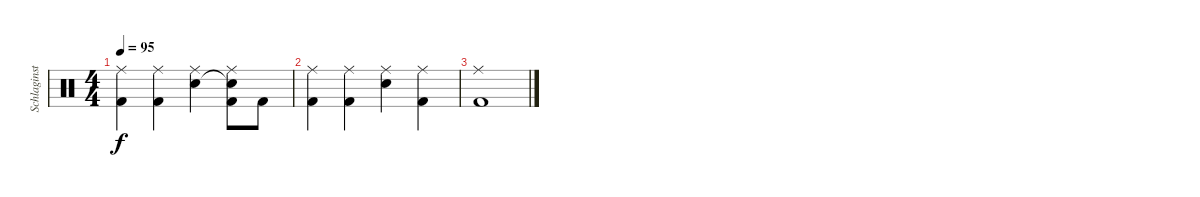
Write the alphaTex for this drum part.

\track ("Schlaginstrumente - Auswahl" "Schlaginst") {instrument percussion}
\staff {score}
\articulation defaults
\ts (4 4)
\tempo 95
\clef neutral
\ks c
("Ride (middle)" "Kick (hit) 2").4{dy f} ("Ride (middle)" "Kick (hit) 2").4 ("Ride (middle)" "Electric Snare (hit)").4 ("Ride (middle)" "Snare (hit)"{t} "Kick (hit) 2").8 "Kick (hit) 2".8 |
("Ride (middle)" "Kick (hit) 2").4 ("Ride (middle)" "Kick (hit) 2").4 ("Ride (middle)" "Electric Snare (hit)").4 ("Ride (middle)" "Kick (hit) 2").4 |
("Ride (middle)" "Kick (hit) 2").1
